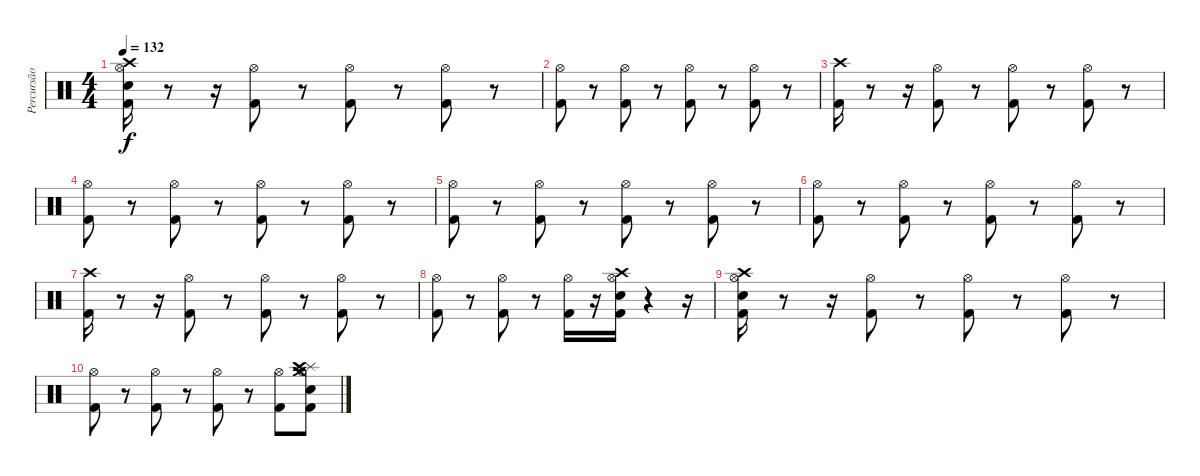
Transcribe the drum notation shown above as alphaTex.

\track ("Percursão" "Percursão") {instrument percussion}
\staff {score}
\articulation defaults
\ts (4 4)
\tempo 132
\clef neutral
\ks c
("Crash high (hit)" "Kick (hit) 2" "Hi-Hat (open)" "Snare (hit) 2").16{dy f} r.8 r.16 ("Kick (hit) 2" "Hi-Hat (open)").8 r.8 ("Kick (hit) 2" "Hi-Hat (open)").8 r.8 ("Kick (hit) 2" "Hi-Hat (open)").8 r.8 |
("Kick (hit) 2" "Hi-Hat (open)").8 r.8 ("Kick (hit) 2" "Hi-Hat (open)").8 r.8 ("Kick (hit) 2" "Hi-Hat (open)").8 r.8 ("Kick (hit) 2" "Hi-Hat (open)").8 r.8 |
("Crash high (hit)" "Kick (hit) 2").16 r.8 r.16 ("Kick (hit) 2" "Hi-Hat (open)").8 r.8 ("Kick (hit) 2" "Hi-Hat (open)").8 r.8 ("Kick (hit) 2" "Hi-Hat (open)").8 r.8 |
("Kick (hit) 2" "Hi-Hat (open)").8 r.8 ("Kick (hit) 2" "Hi-Hat (open)").8 r.8 ("Kick (hit) 2" "Hi-Hat (open)").8 r.8 ("Kick (hit) 2" "Hi-Hat (open)").8 r.8 |
("Kick (hit) 2" "Hi-Hat (open)").8 r.8 ("Kick (hit) 2" "Hi-Hat (open)").8 r.8 ("Kick (hit) 2" "Hi-Hat (open)").8 r.8 ("Kick (hit) 2" "Hi-Hat (open)").8 r.8 |
("Kick (hit) 2" "Hi-Hat (open)").8 r.8 ("Kick (hit) 2" "Hi-Hat (open)").8 r.8 ("Kick (hit) 2" "Hi-Hat (open)").8 r.8 ("Kick (hit) 2" "Hi-Hat (open)").8 r.8 |
("Crash high (hit)" "Kick (hit) 2").16 r.8 r.16 ("Kick (hit) 2" "Hi-Hat (open)").8 r.8 ("Kick (hit) 2" "Hi-Hat (open)").8 r.8 ("Kick (hit) 2" "Hi-Hat (open)").8 r.8 |
("Kick (hit) 2" "Hi-Hat (open)").8 r.8 ("Kick (hit) 2" "Hi-Hat (open)").8 r.8 ("Kick (hit) 2" "Hi-Hat (open)").16 r.16 ("Crash high (hit)" "Kick (hit) 2" "Hi-Hat (open)" "Snare (hit) 2").16 r.4 r.16 |
("Crash high (hit)" "Kick (hit) 2" "Hi-Hat (open)" "Snare (hit) 2").16 r.8 r.16 ("Kick (hit) 2" "Hi-Hat (open)").8 r.8 ("Kick (hit) 2" "Hi-Hat (open)").8 r.8 ("Kick (hit) 2" "Hi-Hat (open)").8 r.8 |
("Kick (hit) 2" "Hi-Hat (open)").8 r.8 ("Kick (hit) 2" "Hi-Hat (open)").8 r.8 ("Kick (hit) 2" "Hi-Hat (open)").8 r.8 ("Kick (hit) 2" "Hi-Hat (open)").8 ("Crash medium (hit)" "Kick (hit) 2" "Splash (hit)" "Crash high (hit)" "Snare (hit) 2" "Hi-Hat (open)").8
